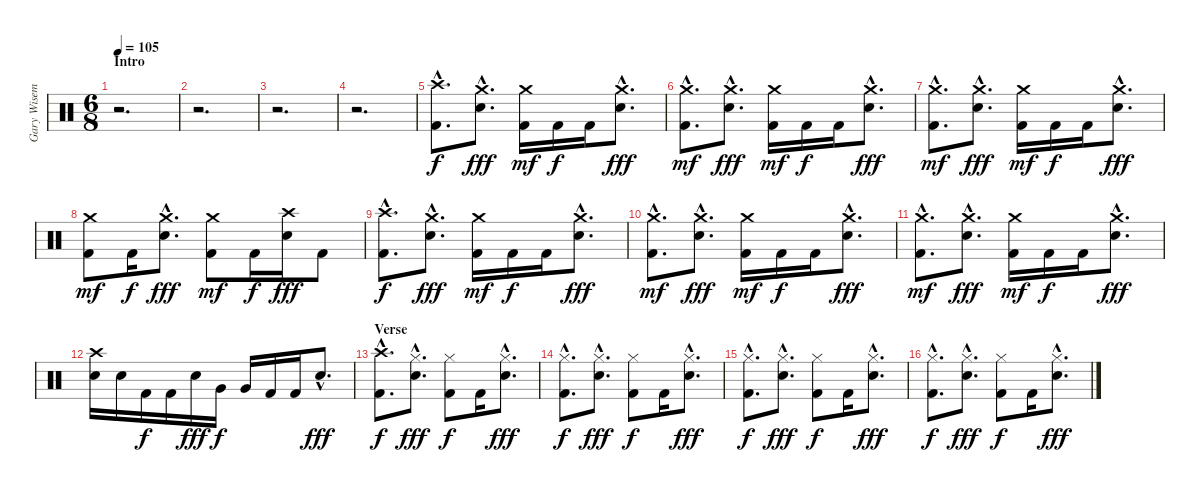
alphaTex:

\track ("Gary Wiseman - Drums" "Gary Wisem") {instrument percussion}
\staff {score}
\articulation defaults
\ts (6 8)
\section ("" "Intro")
\tempo 105
\clef neutral
\ks c
r.2{d dy f} |
r.2{d} |
r.2{d} |
r.2{d} |
("Crash high (hit)"{hac} "Kick (hit) 2"{hac}).8{d} ("Crash medium (hit)"{hac} "Electric Snare (hit)"{hac}).8{d dy fff} ("Crash medium (hit)" "Kick (hit) 2").16{dy mf} "Kick (hit) 2".16{dy f} "Kick (hit) 2".16 ("Crash medium (hit)"{hac} "Electric Snare (hit)"{hac}).8{d dy fff} |
("Crash medium (hit)"{hac} "Kick (hit) 2"{hac}).8{d dy mf} ("Crash medium (hit)"{hac} "Electric Snare (hit)"{hac}).8{d dy fff} ("Crash medium (hit)" "Kick (hit) 2").16{dy mf} "Kick (hit) 2".16{dy f} "Kick (hit) 2".16 ("Crash medium (hit)"{hac} "Electric Snare (hit)"{hac}).8{d dy fff} |
("Crash medium (hit)"{hac} "Kick (hit) 2"{hac}).8{d dy mf} ("Crash medium (hit)"{hac} "Electric Snare (hit)"{hac}).8{d dy fff} ("Crash medium (hit)" "Kick (hit) 2").16{dy mf} "Kick (hit) 2".16{dy f} "Kick (hit) 2".16 ("Crash medium (hit)"{hac} "Electric Snare (hit)"{hac}).8{d dy fff} |
("Crash medium (hit)" "Kick (hit) 2").8{dy mf} "Kick (hit) 2".16{dy f} ("Crash medium (hit)"{hac} "Electric Snare (hit)"{hac}).8{d dy fff} ("Crash medium (hit)" "Kick (hit) 2").8{dy mf} "Kick (hit) 2".16{dy f} ("Crash high (hit)" "Electric Snare (hit)").16{dy fff} "Kick (hit) 2".8 |
("Crash high (hit)"{hac} "Kick (hit) 2"{hac}).8{d dy f} ("Crash medium (hit)"{hac} "Electric Snare (hit)"{hac}).8{d dy fff} ("Crash medium (hit)" "Kick (hit) 2").16{dy mf} "Kick (hit) 2".16{dy f} "Kick (hit) 2".16 ("Crash medium (hit)"{hac} "Electric Snare (hit)"{hac}).8{d dy fff} |
("Crash medium (hit)"{hac} "Kick (hit) 2"{hac}).8{d dy mf} ("Crash medium (hit)"{hac} "Electric Snare (hit)"{hac}).8{d dy fff} ("Crash medium (hit)" "Kick (hit) 2").16{dy mf} "Kick (hit) 2".16{dy f} "Kick (hit) 2".16 ("Crash medium (hit)"{hac} "Electric Snare (hit)"{hac}).8{d dy fff} |
("Crash medium (hit)"{hac} "Kick (hit) 2"{hac}).8{d dy mf} ("Crash medium (hit)"{hac} "Electric Snare (hit)"{hac}).8{d dy fff} ("Crash medium (hit)" "Kick (hit) 2").16{dy mf} "Kick (hit) 2".16{dy f} "Kick (hit) 2".16 ("Crash medium (hit)"{hac} "Electric Snare (hit)"{hac}).8{d dy fff} |
("Crash high (hit)" "Electric Snare (hit)").16 "Electric Snare (hit)".16 "Kick (hit) 2".16{dy f} "Kick (hit) 2".16 "Electric Snare (hit)".16{dy fff} "Very Low Tom (hit)".16{dy f} "Very Low Tom (hit)".16 "Kick (hit) 2".16 "Kick (hit) 2".16 "Electric Snare (hit)"{hac}.8{d dy fff} |
\section ("" "Verse")
("Crash high (hit)"{hac} "Kick (hit) 2"{hac}).8{d dy f} ("Hi-Hat (closed)"{hac} "Electric Snare (hit)"{hac}).8{d dy fff} ("Hi-Hat (closed)" "Kick (hit) 2").8{dy f} "Kick (hit) 2".16 ("Hi-Hat (closed)"{hac} "Electric Snare (hit)"{hac}).8{d dy fff} |
("Hi-Hat (closed)"{hac} "Kick (hit) 2"{hac}).8{d dy f} ("Hi-Hat (closed)"{hac} "Electric Snare (hit)"{hac}).8{d dy fff} ("Hi-Hat (closed)" "Kick (hit) 2").8{dy f} "Kick (hit) 2".16 ("Hi-Hat (closed)"{hac} "Electric Snare (hit)"{hac}).8{d dy fff} |
("Hi-Hat (closed)"{hac} "Kick (hit) 2"{hac}).8{d dy f} ("Hi-Hat (closed)"{hac} "Electric Snare (hit)"{hac}).8{d dy fff} ("Hi-Hat (closed)" "Kick (hit) 2").8{dy f} "Kick (hit) 2".16 ("Hi-Hat (closed)"{hac} "Electric Snare (hit)"{hac}).8{d dy fff} |
("Hi-Hat (closed)"{hac} "Kick (hit) 2"{hac}).8{d dy f} ("Hi-Hat (closed)"{hac} "Electric Snare (hit)"{hac}).8{d dy fff} ("Hi-Hat (closed)" "Kick (hit) 2").8{dy f} "Kick (hit) 2".16 ("Hi-Hat (closed)"{hac} "Electric Snare (hit)"{hac}).8{d dy fff}
